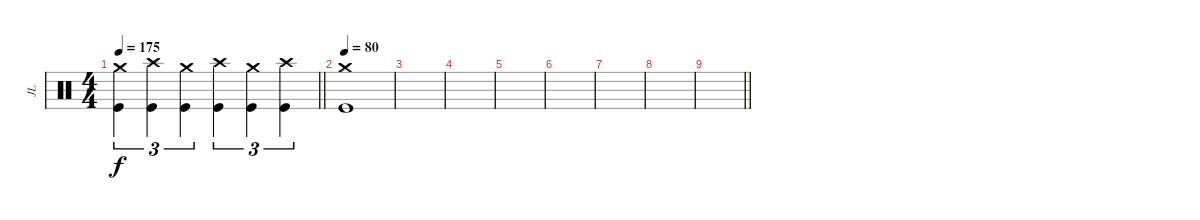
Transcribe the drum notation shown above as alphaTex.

\track ("JL" "JL") {instrument percussion}
\staff {score}
\articulation defaults
\ts (4 4)
\tempo 175
\clef neutral
\barLineRight lightlight
\ks c
("Crash medium (hit)" "Kick (hit)").4{tu (3 2) dy f} ("Crash high (hit)" "Kick (hit)").4{tu (3 2)} ("Crash medium (hit)" "Kick (hit)").4{tu (3 2)} ("Crash high (hit)" "Kick (hit)").4{tu (3 2)} ("Crash medium (hit)" "Kick (hit)").4{tu (3 2)} ("Crash high (hit)" "Kick (hit)").4{tu (3 2)} |
\tempo 80
("Crash medium (hit)" "Kick (hit)").1{volume 0} |
|
|
|
|
|
|
\barLineRight lightlight
